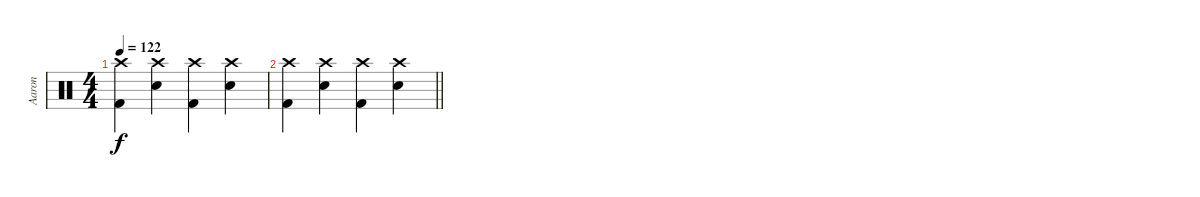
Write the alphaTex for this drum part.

\track ("Aaron" "Aaron") {instrument percussion}
\staff {score}
\articulation defaults
\ts (4 4)
\tempo 122
\clef neutral
\ks c
("Crash high (hit)" "Kick (hit) 2").4{dy f} ("Crash high (hit)" "Snare (hit) 2").4 ("Crash high (hit)" "Kick (hit) 2").4 ("Crash high (hit)" "Snare (hit) 2").4 |
\barLineRight lightlight
("Crash high (hit)" "Kick (hit) 2").4 ("Crash high (hit)" "Snare (hit) 2").4 ("Crash high (hit)" "Kick (hit) 2").4 ("Crash high (hit)" "Snare (hit) 2").4
